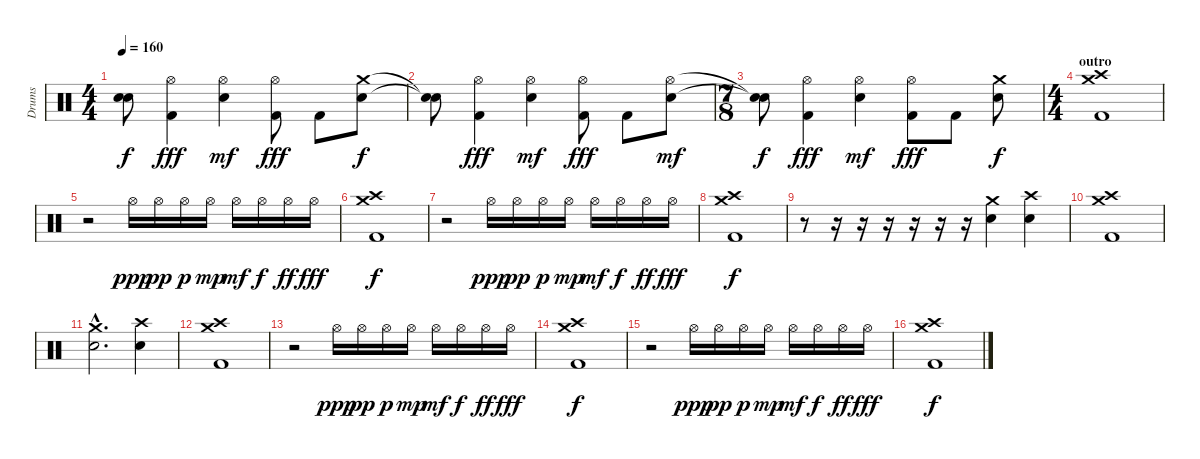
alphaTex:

\track ("Drums" "Drums") {instrument percussion}
\staff {score}
\articulation defaults
\ts (4 4)
\tempo 160
\clef neutral
\ks c
("Snare (hit)"{t} "Snare (hit)"{t}).8{dy f} ("Hi-Hat (open)" "Kick (hit) 2").4{dy fff} ("Hi-Hat (open)" "Electric Snare (hit)").4{dy mf} ("Hi-Hat (open)" "Kick (hit) 2").8{dy fff} "Kick (hit) 2".8 ("Crash medium (hit)" "Electric Snare (hit)").8{dy f} |
("Snare (hit)"{t} "Snare (hit)"{t}).8 ("Hi-Hat (open)" "Kick (hit) 2").4{dy fff} ("Hi-Hat (open)" "Electric Snare (hit)").4{dy mf} ("Hi-Hat (open)" "Kick (hit) 2").8{dy fff} "Kick (hit) 2".8 ("Hi-Hat (open)" "Electric Snare (hit)").8{dy mf} |
\ts (7 8)
("Snare (hit)"{t} "Snare (hit)"{t}).8{dy f} ("Hi-Hat (open)" "Kick (hit) 2").4{dy fff} ("Hi-Hat (open)" "Electric Snare (hit)").4{dy mf} ("Hi-Hat (open)" "Kick (hit) 2").8{dy fff} "Kick (hit) 2".8 ("Crash medium (hit)" "Electric Snare (hit)").8{dy f} |
\ts (4 4)
\section ("" "outro")
("Crash high (hit)" "Crash medium (hit)" "Kick (hit) 2").1 |
r.2 "Hi-Hat (open)".16{dy ppp} "Hi-Hat (open)".16{dy pp} "Hi-Hat (open)".16{dy p} "Hi-Hat (open)".16{dy mp} "Hi-Hat (open)".16{dy mf} "Hi-Hat (open)".16{dy f} "Hi-Hat (open)".16{dy ff} "Hi-Hat (open)".16{dy fff} |
("Crash high (hit)" "Crash medium (hit)" "Kick (hit) 2").1{dy f} |
r.2 "Hi-Hat (open)".16{dy ppp} "Hi-Hat (open)".16{dy pp} "Hi-Hat (open)".16{dy p} "Hi-Hat (open)".16{dy mp} "Hi-Hat (open)".16{dy mf} "Hi-Hat (open)".16{dy f} "Hi-Hat (open)".16{dy ff} "Hi-Hat (open)".16{dy fff} |
("Crash high (hit)" "Crash medium (hit)" "Kick (hit) 2").1{dy f} |
r.8 r.16 r.16 r.16 r.16 r.16 r.16 ("Electric Snare (hit)" "Crash medium (hit)").4 ("Electric Snare (hit)" "Crash high (hit)").4 |
("Crash high (hit)" "Crash medium (hit)" "Kick (hit) 2").1 |
("Crash medium (hit)"{hac} "Electric Snare (hit)"{hac}).2{d} ("Electric Snare (hit)" "Crash high (hit)").4 |
("Crash high (hit)" "Crash medium (hit)" "Kick (hit) 2").1 |
r.2 "Hi-Hat (open)".16{dy ppp} "Hi-Hat (open)".16{dy pp} "Hi-Hat (open)".16{dy p} "Hi-Hat (open)".16{dy mp} "Hi-Hat (open)".16{dy mf} "Hi-Hat (open)".16{dy f} "Hi-Hat (open)".16{dy ff} "Hi-Hat (open)".16{dy fff} |
("Crash high (hit)" "Crash medium (hit)" "Kick (hit) 2").1{dy f} |
r.2 "Hi-Hat (open)".16{dy ppp} "Hi-Hat (open)".16{dy pp} "Hi-Hat (open)".16{dy p} "Hi-Hat (open)".16{dy mp} "Hi-Hat (open)".16{dy mf} "Hi-Hat (open)".16{dy f} "Hi-Hat (open)".16{dy ff} "Hi-Hat (open)".16{dy fff} |
("Crash high (hit)" "Crash medium (hit)" "Kick (hit) 2").1{dy f}
